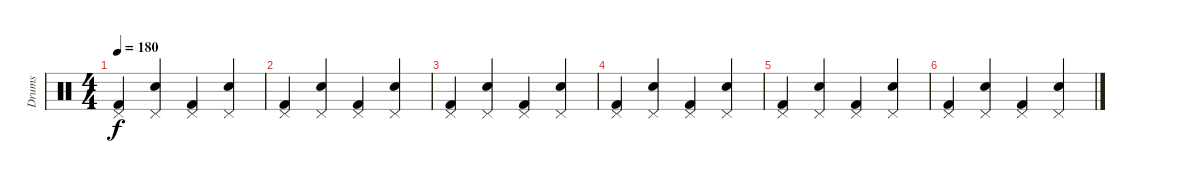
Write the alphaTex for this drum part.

\track ("Drums" "Drums") {instrument percussion}
\staff {score}
\articulation defaults
\ts (4 4)
\tempo 180
\clef neutral
\ks c
("Pedal Hi-Hat (hit)" "Kick (hit) 2").4{dy f} ("Pedal Hi-Hat (hit)" "Snare (hit) 2").4 ("Pedal Hi-Hat (hit)" "Kick (hit) 2").4 ("Pedal Hi-Hat (hit)" "Snare (hit) 2").4 |
("Pedal Hi-Hat (hit)" "Kick (hit) 2").4 ("Pedal Hi-Hat (hit)" "Snare (hit) 2").4 ("Pedal Hi-Hat (hit)" "Kick (hit) 2").4 ("Pedal Hi-Hat (hit)" "Snare (hit) 2").4 |
("Pedal Hi-Hat (hit)" "Kick (hit) 2").4 ("Pedal Hi-Hat (hit)" "Snare (hit) 2").4 ("Pedal Hi-Hat (hit)" "Kick (hit) 2").4 ("Pedal Hi-Hat (hit)" "Snare (hit) 2").4 |
("Pedal Hi-Hat (hit)" "Kick (hit) 2").4 ("Pedal Hi-Hat (hit)" "Snare (hit) 2").4 ("Pedal Hi-Hat (hit)" "Kick (hit) 2").4 ("Pedal Hi-Hat (hit)" "Snare (hit) 2").4 |
("Pedal Hi-Hat (hit)" "Kick (hit) 2").4 ("Pedal Hi-Hat (hit)" "Snare (hit) 2").4 ("Pedal Hi-Hat (hit)" "Kick (hit) 2").4 ("Pedal Hi-Hat (hit)" "Snare (hit) 2").4 |
("Pedal Hi-Hat (hit)" "Kick (hit) 2").4 ("Pedal Hi-Hat (hit)" "Snare (hit) 2").4 ("Pedal Hi-Hat (hit)" "Kick (hit) 2").4 ("Pedal Hi-Hat (hit)" "Snare (hit) 2").4
